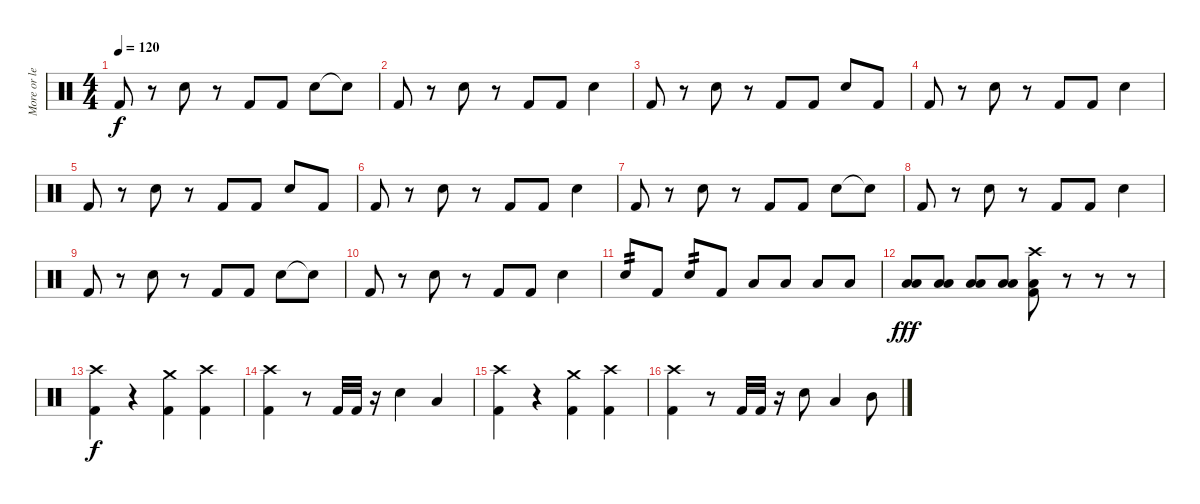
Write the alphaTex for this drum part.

\track ("More or less Drumming" "More or le") {instrument percussion}
\staff {score}
\articulation defaults
\ts (4 4)
\tempo 120
\clef neutral
\ks c "Kick (hit) 2".8{dy f}
r.8 "Electric Snare (hit)".8 r.8 "Kick (hit) 2".8 "Kick (hit) 2".8 "Electric Snare (hit)".8 "Snare (hit)"{t}.8 |
"Kick (hit) 2".8 r.8 "Electric Snare (hit)".8 r.8 "Kick (hit) 2".8 "Kick (hit) 2".8 "Electric Snare (hit)".4 |
"Kick (hit) 2".8 r.8 "Electric Snare (hit)".8 r.8 "Kick (hit) 2".8 "Kick (hit) 2".8 "Electric Snare (hit)".8 "Kick (hit) 2".8 |
"Kick (hit) 2".8 r.8 "Electric Snare (hit)".8 r.8 "Kick (hit) 2".8 "Kick (hit) 2".8 "Electric Snare (hit)".4 |
"Kick (hit) 2".8 r.8 "Electric Snare (hit)".8 r.8 "Kick (hit) 2".8 "Kick (hit) 2".8 "Electric Snare (hit)".8 "Kick (hit) 2".8 |
"Kick (hit) 2".8 r.8 "Electric Snare (hit)".8 r.8 "Kick (hit) 2".8 "Kick (hit) 2".8 "Electric Snare (hit)".4 |
"Kick (hit) 2".8 r.8 "Electric Snare (hit)".8 r.8 "Kick (hit) 2".8 "Kick (hit) 2".8 "Electric Snare (hit)".8 "Snare (hit)"{t}.8 |
"Kick (hit) 2".8 r.8 "Electric Snare (hit)".8 r.8 "Kick (hit) 2".8 "Kick (hit) 2".8 "Electric Snare (hit)".4 |
"Kick (hit) 2".8 r.8 "Electric Snare (hit)".8 r.8 "Kick (hit) 2".8 "Kick (hit) 2".8 "Electric Snare (hit)".8 "Snare (hit)"{t}.8 |
"Kick (hit) 2".8 r.8 "Electric Snare (hit)".8 r.8 "Kick (hit) 2".8 "Kick (hit) 2".8 "Electric Snare (hit)".4 |
"Electric Snare (hit)".8{tp 2} "Kick (hit) 2".8 "Electric Snare (hit)".8{tp 2} "Kick (hit) 2".8 "Low Tom (hit)".8 "Low Tom (hit)".8 "Low Tom (hit)".8 "Low Tom (hit)".8 |
("Low Tom (hit)" "Low Floor Tom (hit)").8{dy fff} ("Low Tom (hit)" "Low Floor Tom (hit)").8 ("Low Tom (hit)" "Low Floor Tom (hit)").8 ("Low Tom (hit)" "Low Floor Tom (hit)").8 ("Low Tom (hit)" "Crash high (hit)" "Kick (hit) 2").8 r.8 r.8 r.8 |
("Kick (hit) 2" "Crash high (hit)").4{dy f} r.4 ("Kick (hit) 2" "Crash medium (hit)").4 ("Kick (hit) 2" "Crash high (hit)").4 |
("Kick (hit) 2" "Crash high (hit)").4 r.8 "Kick (hit) 2".32 "Kick (hit) 2".32 r.16 "Electric Snare (hit)".4 "Low Tom (hit)".4 |
("Kick (hit) 2" "Crash high (hit)").4 r.4 ("Kick (hit) 2" "Crash medium (hit)").4 ("Kick (hit) 2" "Crash high (hit)").4 |
("Kick (hit) 2" "Crash high (hit)").4 r.8 "Kick (hit) 2".32 "Kick (hit) 2".32 r.16 "Electric Snare (hit)".8 "Low Tom (hit)".4 "Mid Tom (hit)".8
